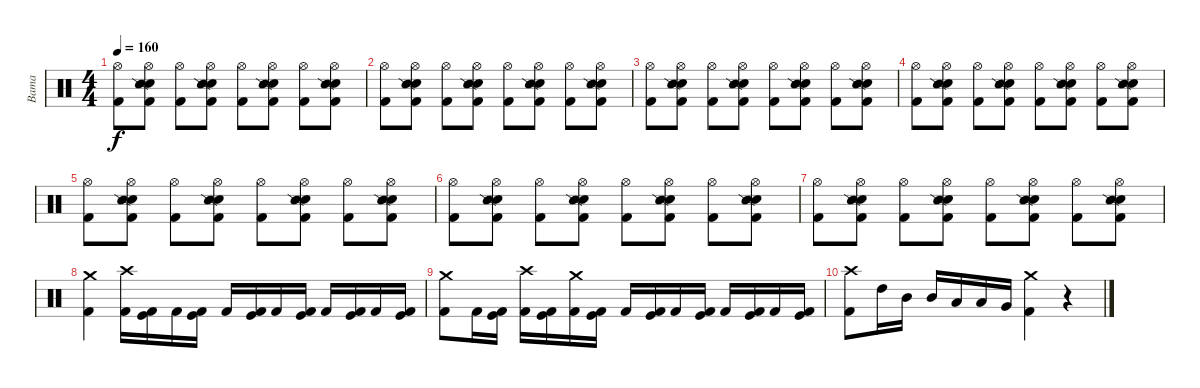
\track ("Bama" "Bama") {instrument percussion}
\staff {score}
\articulation defaults
\ts (4 4)
\tempo 160
\clef neutral
\ks c
("Hi-Hat (open)" "Kick (hit) 2").8{dy f} ("Hi-Hat (open)" "Electric Snare (hit)" "Snare (side stick) 2" "Kick (hit) 2").8 ("Hi-Hat (open)" "Kick (hit) 2").8 ("Hi-Hat (open)" "Electric Snare (hit)" "Snare (side stick) 2" "Kick (hit) 2").8 ("Hi-Hat (open)" "Kick (hit) 2").8 ("Hi-Hat (open)" "Electric Snare (hit)" "Snare (side stick) 2" "Kick (hit) 2").8 ("Hi-Hat (open)" "Kick (hit) 2").8 ("Hi-Hat (open)" "Electric Snare (hit)" "Snare (side stick) 2" "Kick (hit) 2").8 |
("Hi-Hat (open)" "Kick (hit) 2").8 ("Hi-Hat (open)" "Electric Snare (hit)" "Snare (side stick) 2" "Kick (hit) 2").8 ("Hi-Hat (open)" "Kick (hit) 2").8 ("Hi-Hat (open)" "Electric Snare (hit)" "Snare (side stick) 2" "Kick (hit) 2").8 ("Hi-Hat (open)" "Kick (hit) 2").8 ("Hi-Hat (open)" "Electric Snare (hit)" "Snare (side stick) 2" "Kick (hit) 2").8 ("Hi-Hat (open)" "Kick (hit) 2").8 ("Hi-Hat (open)" "Electric Snare (hit)" "Snare (side stick) 2" "Kick (hit) 2").8 |
("Hi-Hat (open)" "Kick (hit) 2").8 ("Hi-Hat (open)" "Electric Snare (hit)" "Snare (side stick) 2" "Kick (hit) 2").8 ("Hi-Hat (open)" "Kick (hit) 2").8 ("Hi-Hat (open)" "Electric Snare (hit)" "Snare (side stick) 2" "Kick (hit) 2").8 ("Hi-Hat (open)" "Kick (hit) 2").8 ("Hi-Hat (open)" "Electric Snare (hit)" "Snare (side stick) 2" "Kick (hit) 2").8 ("Hi-Hat (open)" "Kick (hit) 2").8 ("Hi-Hat (open)" "Electric Snare (hit)" "Snare (side stick) 2" "Kick (hit) 2").8 |
("Hi-Hat (open)" "Kick (hit) 2").8 ("Hi-Hat (open)" "Electric Snare (hit)" "Snare (side stick) 2" "Kick (hit) 2").8 ("Hi-Hat (open)" "Kick (hit) 2").8 ("Hi-Hat (open)" "Electric Snare (hit)" "Snare (side stick) 2" "Kick (hit) 2").8 ("Hi-Hat (open)" "Kick (hit) 2").8 ("Hi-Hat (open)" "Electric Snare (hit)" "Snare (side stick) 2" "Kick (hit) 2").8 ("Hi-Hat (open)" "Kick (hit) 2").8 ("Hi-Hat (open)" "Electric Snare (hit)" "Snare (side stick) 2" "Kick (hit) 2").8 |
("Hi-Hat (open)" "Kick (hit) 2").8 ("Hi-Hat (open)" "Electric Snare (hit)" "Snare (side stick) 2" "Kick (hit) 2").8 ("Hi-Hat (open)" "Kick (hit) 2").8 ("Hi-Hat (open)" "Electric Snare (hit)" "Snare (side stick) 2" "Kick (hit) 2").8 ("Hi-Hat (open)" "Kick (hit) 2").8 ("Hi-Hat (open)" "Electric Snare (hit)" "Snare (side stick) 2" "Kick (hit) 2").8 ("Hi-Hat (open)" "Kick (hit) 2").8 ("Hi-Hat (open)" "Electric Snare (hit)" "Snare (side stick) 2" "Kick (hit) 2").8 |
("Hi-Hat (open)" "Kick (hit) 2").8 ("Hi-Hat (open)" "Electric Snare (hit)" "Snare (side stick) 2" "Kick (hit) 2").8 ("Hi-Hat (open)" "Kick (hit) 2").8 ("Hi-Hat (open)" "Electric Snare (hit)" "Snare (side stick) 2" "Kick (hit) 2").8 ("Hi-Hat (open)" "Kick (hit) 2").8 ("Hi-Hat (open)" "Electric Snare (hit)" "Snare (side stick) 2" "Kick (hit) 2").8 ("Hi-Hat (open)" "Kick (hit) 2").8 ("Hi-Hat (open)" "Electric Snare (hit)" "Snare (side stick) 2" "Kick (hit) 2").8 |
("Hi-Hat (open)" "Kick (hit) 2").8 ("Hi-Hat (open)" "Electric Snare (hit)" "Snare (side stick) 2" "Kick (hit) 2").8 ("Hi-Hat (open)" "Kick (hit) 2").8 ("Hi-Hat (open)" "Electric Snare (hit)" "Snare (side stick) 2" "Kick (hit) 2").8 ("Hi-Hat (open)" "Kick (hit) 2").8 ("Hi-Hat (open)" "Electric Snare (hit)" "Snare (side stick) 2" "Kick (hit) 2").8 ("Hi-Hat (open)" "Kick (hit) 2").8 ("Hi-Hat (open)" "Electric Snare (hit)" "Snare (side stick) 2" "Kick (hit) 2").8 |
("Crash medium (hit)" "Kick (hit) 2").4 ("Crash high (hit)" "Kick (hit) 2").16 ("Kick (hit)" "Kick (hit) 2").16 "Kick (hit) 2".16 ("Kick (hit)" "Kick (hit) 2").16 "Kick (hit) 2".16 ("Kick (hit)" "Kick (hit) 2").16 "Kick (hit) 2".16 ("Kick (hit)" "Kick (hit) 2").16 "Kick (hit) 2".16 ("Kick (hit)" "Kick (hit) 2").16 "Kick (hit) 2".16 ("Kick (hit)" "Kick (hit) 2").16 |
("Crash medium (hit)" "Kick (hit) 2").8 "Kick (hit) 2".16 ("Kick (hit)" "Kick (hit) 2").16 ("Crash high (hit)" "Kick (hit) 2").16 ("Kick (hit)" "Kick (hit) 2").16 ("Crash medium (hit)" "Kick (hit) 2").16 ("Kick (hit)" "Kick (hit) 2").16 "Kick (hit) 2".16 ("Kick (hit)" "Kick (hit) 2").16 "Kick (hit) 2".16 ("Kick (hit)" "Kick (hit) 2").16 "Kick (hit) 2".16 ("Kick (hit)" "Kick (hit) 2").16 "Kick (hit) 2".16 ("Kick (hit)" "Kick (hit) 2").16 |
("Crash high (hit)" "Kick (hit) 2").8 "High Tom (hit)".16 "Mid Tom (hit)".16 "Mid Tom (hit)".16 "Low Tom (hit)".16 "Low Tom (hit)".16 "Very Low Tom (hit)".16 ("Crash medium (hit)" "Kick (hit) 2").4 r.4
